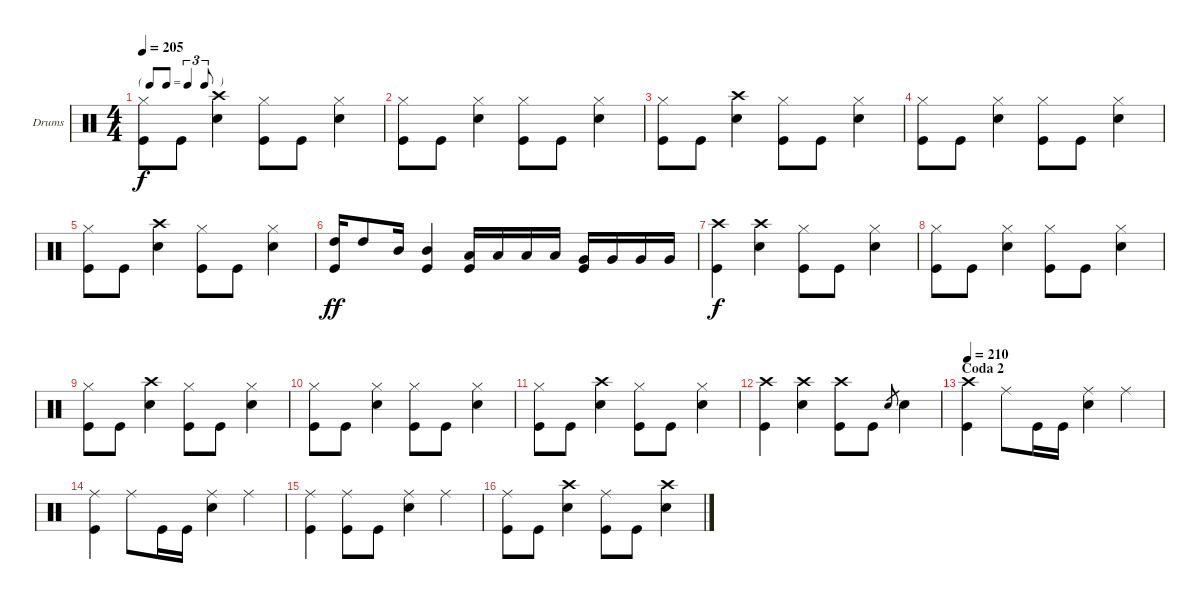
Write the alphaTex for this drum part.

\bracketExtendMode groupsimilarinstruments
\firstSystemTrackNameOrientation horizontal
\otherSystemsTrackNameOrientation horizontal
\track ("Drums" "Drums") {instrument percussion}
\staff {score}
\articulation defaults
\ts (4 4)
\tf triplet8th
\tempo 205
\clef neutral
\ks c
("Kick (hit)" "Hi-Hat (closed)").8{dy f} "Kick (hit)".8 ("Crash high (hit)" "Snare (hit) 2").4 ("Kick (hit)" "Hi-Hat (closed)").8 "Kick (hit)".8 ("Snare (hit) 2" "Hi-Hat (closed)").4 |
("Kick (hit)" "Hi-Hat (closed)").8 "Kick (hit)".8 ("Snare (hit) 2" "Hi-Hat (closed)").4 ("Kick (hit)" "Hi-Hat (closed)").8 "Kick (hit)".8 ("Snare (hit) 2" "Hi-Hat (closed)").4 |
("Kick (hit)" "Hi-Hat (closed)").8 "Kick (hit)".8 ("Crash high (hit)" "Snare (hit) 2").4 ("Kick (hit)" "Hi-Hat (closed)").8 "Kick (hit)".8 ("Snare (hit) 2" "Hi-Hat (closed)").4 |
("Kick (hit)" "Hi-Hat (closed)").8 "Kick (hit)".8 ("Snare (hit) 2" "Hi-Hat (closed)").4 ("Kick (hit)" "Hi-Hat (closed)").8 "Kick (hit)".8 ("Snare (hit) 2" "Hi-Hat (closed)").4 |
("Kick (hit)" "Hi-Hat (closed)").8 "Kick (hit)".8 ("Crash high (hit)" "Snare (hit) 2").4 ("Kick (hit)" "Hi-Hat (closed)").8 "Kick (hit)".8 ("Snare (hit) 2" "Hi-Hat (closed)").4 |
("High Tom (hit)" "Kick (hit)").16{dy ff} "High Tom (hit)".8 "Mid Tom (hit)".16 ("Mid Tom (hit)" "Kick (hit)").4 ("Low Tom (hit)" "Kick (hit)").16 "Low Tom (hit)".16 "Low Tom (hit)".16 "Low Tom (hit)".16 ("Very Low Tom (hit)" "Kick (hit)").16 "Very Low Tom (hit)".16 "Very Low Tom (hit)".16 "Very Low Tom (hit)".16 |
("Kick (hit)" "Crash high (hit)").4{dy f} ("Snare (hit) 2" "Crash high (hit)").4 ("Hi-Hat (closed)" "Kick (hit)").8 "Kick (hit)".8 ("Hi-Hat (closed)" "Snare (hit) 2").4 |
("Kick (hit)" "Hi-Hat (closed)").8 "Kick (hit)".8 ("Snare (hit) 2" "Hi-Hat (closed)").4 ("Kick (hit)" "Hi-Hat (closed)").8 "Kick (hit)".8 ("Snare (hit) 2" "Hi-Hat (closed)").4 |
("Kick (hit)" "Hi-Hat (closed)").8 "Kick (hit)".8 ("Crash high (hit)" "Snare (hit) 2").4 ("Kick (hit)" "Hi-Hat (closed)").8 "Kick (hit)".8 ("Snare (hit) 2" "Hi-Hat (closed)").4 |
("Kick (hit)" "Hi-Hat (closed)").8 "Kick (hit)".8 ("Snare (hit) 2" "Hi-Hat (closed)").4 ("Kick (hit)" "Hi-Hat (closed)").8 "Kick (hit)".8 ("Snare (hit) 2" "Hi-Hat (closed)").4 |
("Kick (hit)" "Hi-Hat (closed)").8 "Kick (hit)".8 ("Crash high (hit)" "Snare (hit) 2").4 ("Kick (hit)" "Hi-Hat (closed)").8 "Kick (hit)".8 ("Snare (hit) 2" "Hi-Hat (closed)").4 |
("Kick (hit)" "Crash high (hit)").4 ("Snare (hit) 2" "Crash high (hit)").4 ("Kick (hit)" "Crash high (hit)").8 "Kick (hit)".8 "Snare (hit) 2".8{gr} "Snare (hit) 2".4 |
\section ("" "Coda 2")
\tempo 210
("Kick (hit)" "Crash high (hit)").4 "Ride (middle)".8 "Kick (hit)".16 "Kick (hit)".16 ("Snare (hit) 2" "Ride (middle)").4 "Ride (middle)".4 |
("Kick (hit)" "Ride (middle)").4 "Ride (middle)".8 "Kick (hit)".16 "Kick (hit)".16 ("Snare (hit) 2" "Ride (middle)").4 "Ride (middle)".4 |
("Kick (hit)" "Ride (middle)").4 ("Kick (hit)" "Ride (middle)").8 "Kick (hit)".8 ("Ride (middle)" "Snare (hit) 2").4 "Ride (middle)".4 |
("Ride (middle)" "Kick (hit)").8 "Kick (hit)".8 ("Snare (hit) 2" "Crash high (hit)").4 ("Ride (middle)" "Kick (hit)").8 "Kick (hit)".8 ("Snare (hit) 2" "Crash high (hit)").4
